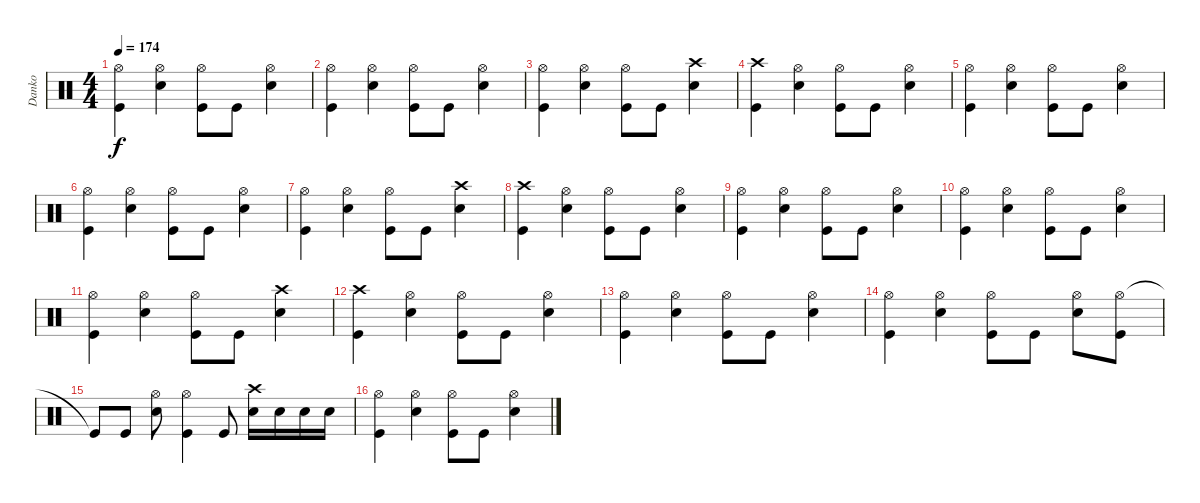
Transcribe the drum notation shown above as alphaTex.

\track ("Danko" "Danko") {instrument percussion}
\staff {score}
\articulation defaults
\ts (4 4)
\tempo 174
\clef neutral
\ks c
("Hi-Hat (open)" "Kick (hit)").4{dy f} ("Hi-Hat (open)" "Snare (hit) 2").4 ("Hi-Hat (open)" "Kick (hit)").8 "Kick (hit)".8 ("Hi-Hat (open)" "Snare (hit) 2").4 |
("Hi-Hat (open)" "Kick (hit)").4 ("Hi-Hat (open)" "Snare (hit) 2").4 ("Hi-Hat (open)" "Kick (hit)").8 "Kick (hit)".8 ("Hi-Hat (open)" "Snare (hit) 2").4 |
("Hi-Hat (open)" "Kick (hit)").4 ("Hi-Hat (open)" "Snare (hit) 2").4 ("Hi-Hat (open)" "Kick (hit)").8 "Kick (hit)".8 ("Crash high (hit)" "Snare (hit) 2").4 |
("Crash high (hit)" "Kick (hit)").4 ("Hi-Hat (open)" "Snare (hit) 2").4 ("Hi-Hat (open)" "Kick (hit)").8 "Kick (hit)".8 ("Hi-Hat (open)" "Snare (hit) 2").4 |
("Hi-Hat (open)" "Kick (hit)").4 ("Hi-Hat (open)" "Snare (hit) 2").4 ("Hi-Hat (open)" "Kick (hit)").8 "Kick (hit)".8 ("Hi-Hat (open)" "Snare (hit) 2").4 |
("Hi-Hat (open)" "Kick (hit)").4 ("Hi-Hat (open)" "Snare (hit) 2").4 ("Hi-Hat (open)" "Kick (hit)").8 "Kick (hit)".8 ("Hi-Hat (open)" "Snare (hit) 2").4 |
("Hi-Hat (open)" "Kick (hit)").4 ("Hi-Hat (open)" "Snare (hit) 2").4 ("Hi-Hat (open)" "Kick (hit)").8 "Kick (hit)".8 ("Crash high (hit)" "Snare (hit) 2").4 |
("Crash high (hit)" "Kick (hit)").4 ("Hi-Hat (open)" "Snare (hit) 2").4 ("Hi-Hat (open)" "Kick (hit)").8 "Kick (hit)".8 ("Hi-Hat (open)" "Snare (hit) 2").4 |
("Hi-Hat (open)" "Kick (hit)").4 ("Hi-Hat (open)" "Snare (hit) 2").4 ("Hi-Hat (open)" "Kick (hit)").8 "Kick (hit)".8 ("Hi-Hat (open)" "Snare (hit) 2").4 |
("Hi-Hat (open)" "Kick (hit)").4 ("Hi-Hat (open)" "Snare (hit) 2").4 ("Hi-Hat (open)" "Kick (hit)").8 "Kick (hit)".8 ("Hi-Hat (open)" "Snare (hit) 2").4 |
("Hi-Hat (open)" "Kick (hit)").4 ("Hi-Hat (open)" "Snare (hit) 2").4 ("Hi-Hat (open)" "Kick (hit)").8 "Kick (hit)".8 ("Crash high (hit)" "Snare (hit) 2").4 |
("Crash high (hit)" "Kick (hit)").4 ("Hi-Hat (open)" "Snare (hit) 2").4 ("Hi-Hat (open)" "Kick (hit)").8 "Kick (hit)".8 ("Hi-Hat (open)" "Snare (hit) 2").4 |
("Hi-Hat (open)" "Kick (hit)").4 ("Hi-Hat (open)" "Snare (hit) 2").4 ("Hi-Hat (open)" "Kick (hit)").8 "Kick (hit)".8 ("Hi-Hat (open)" "Snare (hit) 2").4 |
("Hi-Hat (open)" "Kick (hit)").4 ("Hi-Hat (open)" "Snare (hit) 2").4 ("Hi-Hat (open)" "Kick (hit)").8 "Kick (hit)".8 ("Hi-Hat (open)" "Snare (hit) 2").8 ("Hi-Hat (open)" "Kick (hit)").8 |
"Kick (hit)"{t}.8 "Kick (hit)".8 ("Hi-Hat (open)" "Snare (hit) 2").8 ("Hi-Hat (open)" "Kick (hit)").4 "Kick (hit)".8 ("Crash high (hit)" "Snare (hit) 2").16 "Snare (hit) 2".16 "Snare (hit) 2".16 "Snare (hit) 2".16 |
("Hi-Hat (open)" "Kick (hit)").4 ("Hi-Hat (open)" "Snare (hit) 2").4 ("Hi-Hat (open)" "Kick (hit)").8 "Kick (hit)".8 ("Hi-Hat (open)" "Snare (hit) 2").4
